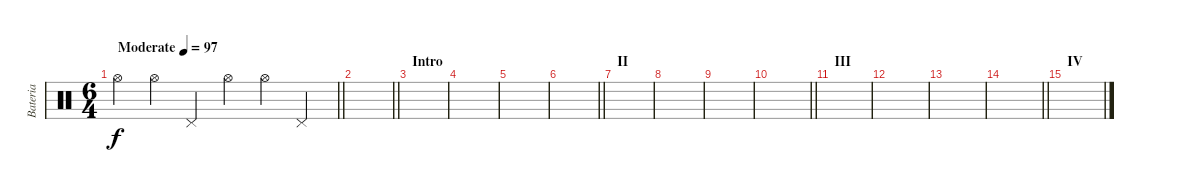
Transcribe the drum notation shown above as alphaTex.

\track ("Bateria" "Bateria") {instrument percussion}
\staff {score}
\articulation defaults
\ts (6 4)
\tempo (97 "Moderate")
\clef neutral
\barLineRight lightlight
\ks c "Hi-Hat (open)".4{dy f} "Hi-Hat (open)".4 "Pedal Hi-Hat (hit)".4 "Hi-Hat (open)".4 "Hi-Hat (open)".4 "Pedal Hi-Hat (hit)".4
|
\barLineRight lightlight
|
\section ("" "Intro")
|
|
|
\barLineRight lightlight
|
\section ("" "II")
|
|
|
\barLineRight lightlight
|
\section ("" "III")
|
|
|
\barLineRight lightlight
|
\section ("" "IV")
